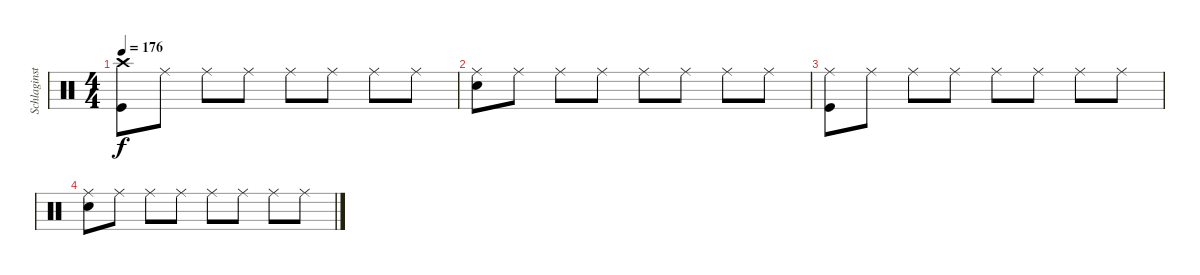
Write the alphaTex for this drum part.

\track ("Schlaginstrumente - Auswahl" "Schlaginst") {instrument percussion}
\staff {score}
\articulation defaults
\ts (4 4)
\tempo 176
\clef neutral
\ks c
("Kick (hit)" "Crash high (hit)").8{dy f volume 0} "Ride (middle)".8 "Ride (middle)".8 "Ride (middle)".8 "Ride (middle)".8 "Ride (middle)".8 "Ride (middle)".8 "Ride (middle)".8 |
("Snare (hit) 2" "Ride (middle)").8 "Ride (middle)".8 "Ride (middle)".8 "Ride (middle)".8 "Ride (middle)".8 "Ride (middle)".8 "Ride (middle)".8 "Ride (middle)".8 |
("Kick (hit)" "Ride (middle)").8 "Ride (middle)".8 "Ride (middle)".8 "Ride (middle)".8 "Ride (middle)".8 "Ride (middle)".8 "Ride (middle)".8 "Ride (middle)".8 |
("Snare (hit) 2" "Ride (middle)").8 "Ride (middle)".8 "Ride (middle)".8 "Ride (middle)".8 "Ride (middle)".8 "Ride (middle)".8 "Ride (middle)".8 "Ride (middle)".8
